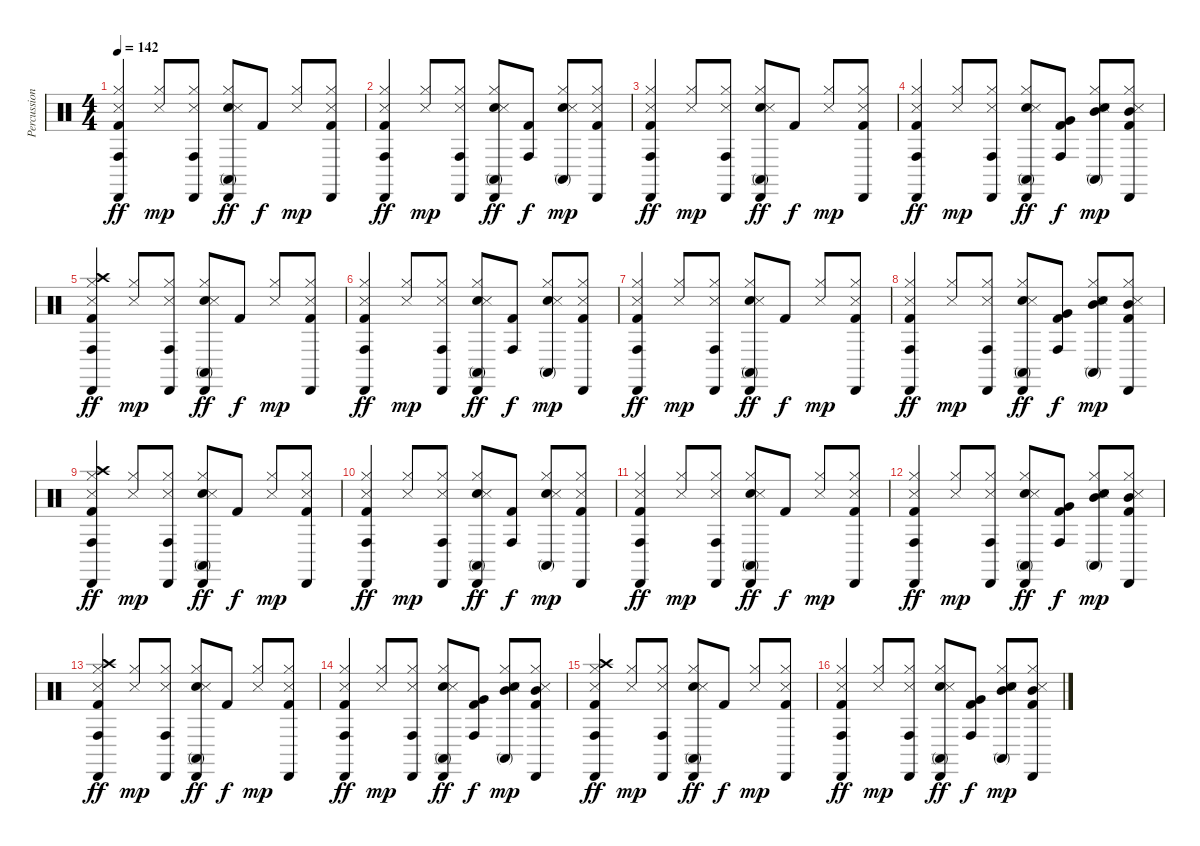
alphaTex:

\track ("Percussion" "Percussion") {instrument percussion}
\staff {score}
\articulation defaults
\ts (4 4)
\tempo 142
\clef neutral
\ks c
("Conga high (hit)" "Cabasa (hit)" "Hi-Hat (closed)" "Snare (side stick) 3" "Kick (hit) 2").4{dy ff} ("Hi-Hat (closed)" "Snare (side stick) 3").8{dy mp} ("Conga high (hit)" "Cabasa (hit)" "Hi-Hat (closed)" "Snare (side stick) 3").8 ("Conga high (mute)" "Cabasa (hit)" "Hi-Hat (closed)" "Hand Clap (hit)" "Snare (side stick) 3").8{dy ff} "Kick (hit) 2".8{dy f} ("Hi-Hat (closed)" "Snare (side stick) 3").8{dy mp} ("Cabasa (hit)" "Hi-Hat (closed)" "Snare (side stick) 3" "Kick (hit) 2").8 |
("Conga high (hit)" "Cabasa (hit)" "Hi-Hat (closed)" "Snare (side stick) 3" "Kick (hit) 2").4{dy ff} ("Hi-Hat (closed)" "Snare (side stick) 3").8{dy mp} ("Conga high (hit)" "Cabasa (hit)" "Hi-Hat (closed)" "Snare (side stick) 3").8 ("Conga high (mute)" "Cabasa (hit)" "Hi-Hat (closed)" "Hand Clap (hit)" "Snare (side stick) 3").8{dy ff} ("Conga high (hit)" "Kick (hit) 2").8{dy f} ("Conga high (mute)" "Hi-Hat (closed)" "Hand Clap (hit)" "Snare (side stick) 3").8{dy mp} ("Cabasa (hit)" "Hi-Hat (closed)" "Snare (side stick) 3" "Kick (hit) 2").8 |
("Conga high (hit)" "Cabasa (hit)" "Hi-Hat (closed)" "Snare (side stick) 3" "Kick (hit) 2").4{dy ff} ("Hi-Hat (closed)" "Snare (side stick) 3").8{dy mp} ("Conga high (hit)" "Cabasa (hit)" "Hi-Hat (closed)" "Snare (side stick) 3").8 ("Conga high (mute)" "Cabasa (hit)" "Hi-Hat (closed)" "Hand Clap (hit)" "Snare (side stick) 3").8{dy ff} "Kick (hit) 2".8{dy f} ("Hi-Hat (closed)" "Snare (side stick) 3").8{dy mp} ("Cabasa (hit)" "Hi-Hat (closed)" "Snare (side stick) 3" "Kick (hit) 2").8 |
("Conga high (hit)" "Cabasa (hit)" "Hi-Hat (closed)" "Snare (side stick) 3" "Kick (hit) 2").4{dy ff} ("Hi-Hat (closed)" "Snare (side stick) 3").8{dy mp} ("Conga high (hit)" "Cabasa (hit)" "Hi-Hat (closed)" "Snare (side stick) 3").8 ("Conga high (mute)" "Cabasa (hit)" "Hi-Hat (closed)" "Hand Clap (hit)" "Snare (side stick) 3").8{dy ff} ("Conga high (hit)" "Very Low Tom (hit)" "Kick (hit) 2").8{dy f} ("Conga high (mute)" "Mid Tom (hit)" "Hi-Hat (closed)" "Hand Clap (hit)" "Snare (side stick) 3").8{dy mp} ("Cabasa (hit)" "Mid Tom (hit)" "Hi-Hat (closed)" "Snare (side stick) 3" "Kick (hit) 2").8 |
("Conga high (hit)" "Cabasa (hit)" "Crash high (hit)" "Hi-Hat (closed)" "Snare (side stick) 3" "Kick (hit) 2").4{dy ff} ("Hi-Hat (closed)" "Snare (side stick) 3").8{dy mp} ("Conga high (hit)" "Cabasa (hit)" "Hi-Hat (closed)" "Snare (side stick) 3").8 ("Conga high (mute)" "Cabasa (hit)" "Hi-Hat (closed)" "Hand Clap (hit)" "Snare (side stick) 3").8{dy ff} "Kick (hit) 2".8{dy f} ("Hi-Hat (closed)" "Snare (side stick) 3").8{dy mp} ("Cabasa (hit)" "Hi-Hat (closed)" "Snare (side stick) 3" "Kick (hit) 2").8 |
("Conga high (hit)" "Cabasa (hit)" "Hi-Hat (closed)" "Snare (side stick) 3" "Kick (hit) 2").4{dy ff} ("Hi-Hat (closed)" "Snare (side stick) 3").8{dy mp} ("Conga high (hit)" "Cabasa (hit)" "Hi-Hat (closed)" "Snare (side stick) 3").8 ("Conga high (mute)" "Cabasa (hit)" "Hi-Hat (closed)" "Hand Clap (hit)" "Snare (side stick) 3").8{dy ff} ("Conga high (hit)" "Kick (hit) 2").8{dy f} ("Conga high (mute)" "Hi-Hat (closed)" "Hand Clap (hit)" "Snare (side stick) 3").8{dy mp} ("Cabasa (hit)" "Hi-Hat (closed)" "Snare (side stick) 3" "Kick (hit) 2").8 |
("Conga high (hit)" "Cabasa (hit)" "Hi-Hat (closed)" "Snare (side stick) 3" "Kick (hit) 2").4{dy ff} ("Hi-Hat (closed)" "Snare (side stick) 3").8{dy mp} ("Conga high (hit)" "Cabasa (hit)" "Hi-Hat (closed)" "Snare (side stick) 3").8 ("Conga high (mute)" "Cabasa (hit)" "Hi-Hat (closed)" "Hand Clap (hit)" "Snare (side stick) 3").8{dy ff} "Kick (hit) 2".8{dy f} ("Hi-Hat (closed)" "Snare (side stick) 3").8{dy mp} ("Cabasa (hit)" "Hi-Hat (closed)" "Snare (side stick) 3" "Kick (hit) 2").8 |
("Conga high (hit)" "Cabasa (hit)" "Hi-Hat (closed)" "Snare (side stick) 3" "Kick (hit) 2").4{dy ff} ("Hi-Hat (closed)" "Snare (side stick) 3").8{dy mp} ("Conga high (hit)" "Cabasa (hit)" "Hi-Hat (closed)" "Snare (side stick) 3").8 ("Conga high (mute)" "Cabasa (hit)" "Hi-Hat (closed)" "Hand Clap (hit)" "Snare (side stick) 3").8{dy ff} ("Conga high (hit)" "Very Low Tom (hit)" "Kick (hit) 2").8{dy f} ("Conga high (mute)" "Mid Tom (hit)" "Hi-Hat (closed)" "Hand Clap (hit)" "Snare (side stick) 3").8{dy mp} ("Cabasa (hit)" "Mid Tom (hit)" "Hi-Hat (closed)" "Snare (side stick) 3" "Kick (hit) 2").8 |
("Conga high (hit)" "Cabasa (hit)" "Crash high (hit)" "Hi-Hat (closed)" "Snare (side stick) 3" "Kick (hit) 2").4{dy ff} ("Hi-Hat (closed)" "Snare (side stick) 3").8{dy mp} ("Conga high (hit)" "Cabasa (hit)" "Hi-Hat (closed)" "Snare (side stick) 3").8 ("Conga high (mute)" "Cabasa (hit)" "Hi-Hat (closed)" "Hand Clap (hit)" "Snare (side stick) 3").8{dy ff} "Kick (hit) 2".8{dy f} ("Hi-Hat (closed)" "Snare (side stick) 3").8{dy mp} ("Cabasa (hit)" "Hi-Hat (closed)" "Snare (side stick) 3" "Kick (hit) 2").8 |
("Conga high (hit)" "Cabasa (hit)" "Hi-Hat (closed)" "Snare (side stick) 3" "Kick (hit) 2").4{dy ff} ("Hi-Hat (closed)" "Snare (side stick) 3").8{dy mp} ("Conga high (hit)" "Cabasa (hit)" "Hi-Hat (closed)" "Snare (side stick) 3").8 ("Conga high (mute)" "Cabasa (hit)" "Hi-Hat (closed)" "Hand Clap (hit)" "Snare (side stick) 3").8{dy ff} ("Conga high (hit)" "Kick (hit) 2").8{dy f} ("Conga high (mute)" "Hi-Hat (closed)" "Hand Clap (hit)" "Snare (side stick) 3").8{dy mp} ("Cabasa (hit)" "Hi-Hat (closed)" "Snare (side stick) 3" "Kick (hit) 2").8 |
("Conga high (hit)" "Cabasa (hit)" "Hi-Hat (closed)" "Snare (side stick) 3" "Kick (hit) 2").4{dy ff} ("Hi-Hat (closed)" "Snare (side stick) 3").8{dy mp} ("Conga high (hit)" "Cabasa (hit)" "Hi-Hat (closed)" "Snare (side stick) 3").8 ("Conga high (mute)" "Cabasa (hit)" "Hi-Hat (closed)" "Hand Clap (hit)" "Snare (side stick) 3").8{dy ff} "Kick (hit) 2".8{dy f} ("Hi-Hat (closed)" "Snare (side stick) 3").8{dy mp} ("Cabasa (hit)" "Hi-Hat (closed)" "Snare (side stick) 3" "Kick (hit) 2").8 |
("Conga high (hit)" "Cabasa (hit)" "Hi-Hat (closed)" "Snare (side stick) 3" "Kick (hit) 2").4{dy ff} ("Hi-Hat (closed)" "Snare (side stick) 3").8{dy mp} ("Conga high (hit)" "Cabasa (hit)" "Hi-Hat (closed)" "Snare (side stick) 3").8 ("Conga high (mute)" "Cabasa (hit)" "Hi-Hat (closed)" "Hand Clap (hit)" "Snare (side stick) 3").8{dy ff} ("Conga high (hit)" "Very Low Tom (hit)" "Kick (hit) 2").8{dy f} ("Conga high (mute)" "Mid Tom (hit)" "Hi-Hat (closed)" "Hand Clap (hit)" "Snare (side stick) 3").8{dy mp} ("Cabasa (hit)" "Mid Tom (hit)" "Hi-Hat (closed)" "Snare (side stick) 3" "Kick (hit) 2").8 |
("Conga high (hit)" "Cabasa (hit)" "Crash high (hit)" "Hi-Hat (closed)" "Snare (side stick) 3" "Kick (hit) 2").4{dy ff} ("Hi-Hat (closed)" "Snare (side stick) 3").8{dy mp} ("Conga high (hit)" "Cabasa (hit)" "Hi-Hat (closed)" "Snare (side stick) 3").8 ("Conga high (mute)" "Cabasa (hit)" "Hi-Hat (closed)" "Hand Clap (hit)" "Snare (side stick) 3").8{dy ff} "Kick (hit) 2".8{dy f} ("Hi-Hat (closed)" "Snare (side stick) 3").8{dy mp} ("Cabasa (hit)" "Hi-Hat (closed)" "Snare (side stick) 3" "Kick (hit) 2").8 |
("Conga high (hit)" "Cabasa (hit)" "Hi-Hat (closed)" "Snare (side stick) 3" "Kick (hit) 2").4{dy ff} ("Hi-Hat (closed)" "Snare (side stick) 3").8{dy mp} ("Conga high (hit)" "Cabasa (hit)" "Hi-Hat (closed)" "Snare (side stick) 3").8 ("Conga high (mute)" "Cabasa (hit)" "Hi-Hat (closed)" "Hand Clap (hit)" "Snare (side stick) 3").8{dy ff} ("Conga high (hit)" "Very Low Tom (hit)" "Kick (hit) 2").8{dy f} ("Conga high (mute)" "Mid Tom (hit)" "Hi-Hat (closed)" "Hand Clap (hit)" "Snare (side stick) 3").8{dy mp} ("Cabasa (hit)" "Mid Tom (hit)" "Hi-Hat (closed)" "Snare (side stick) 3" "Kick (hit) 2").8 |
("Conga high (hit)" "Cabasa (hit)" "Crash high (hit)" "Hi-Hat (closed)" "Snare (side stick) 3" "Kick (hit) 2").4{dy ff} ("Hi-Hat (closed)" "Snare (side stick) 3").8{dy mp} ("Conga high (hit)" "Cabasa (hit)" "Hi-Hat (closed)" "Snare (side stick) 3").8 ("Conga high (mute)" "Cabasa (hit)" "Hi-Hat (closed)" "Hand Clap (hit)" "Snare (side stick) 3").8{dy ff} "Kick (hit) 2".8{dy f} ("Hi-Hat (closed)" "Snare (side stick) 3").8{dy mp} ("Cabasa (hit)" "Hi-Hat (closed)" "Snare (side stick) 3" "Kick (hit) 2").8 |
("Conga high (hit)" "Cabasa (hit)" "Hi-Hat (closed)" "Snare (side stick) 3" "Kick (hit) 2").4{dy ff} ("Hi-Hat (closed)" "Snare (side stick) 3").8{dy mp} ("Conga high (hit)" "Cabasa (hit)" "Hi-Hat (closed)" "Snare (side stick) 3").8 ("Conga high (mute)" "Cabasa (hit)" "Hi-Hat (closed)" "Hand Clap (hit)" "Snare (side stick) 3").8{dy ff} ("Conga high (hit)" "Very Low Tom (hit)" "Kick (hit) 2").8{dy f} ("Conga high (mute)" "Mid Tom (hit)" "Hi-Hat (closed)" "Hand Clap (hit)" "Snare (side stick) 3").8{dy mp} ("Cabasa (hit)" "Mid Tom (hit)" "Hi-Hat (closed)" "Snare (side stick) 3" "Kick (hit) 2").8
